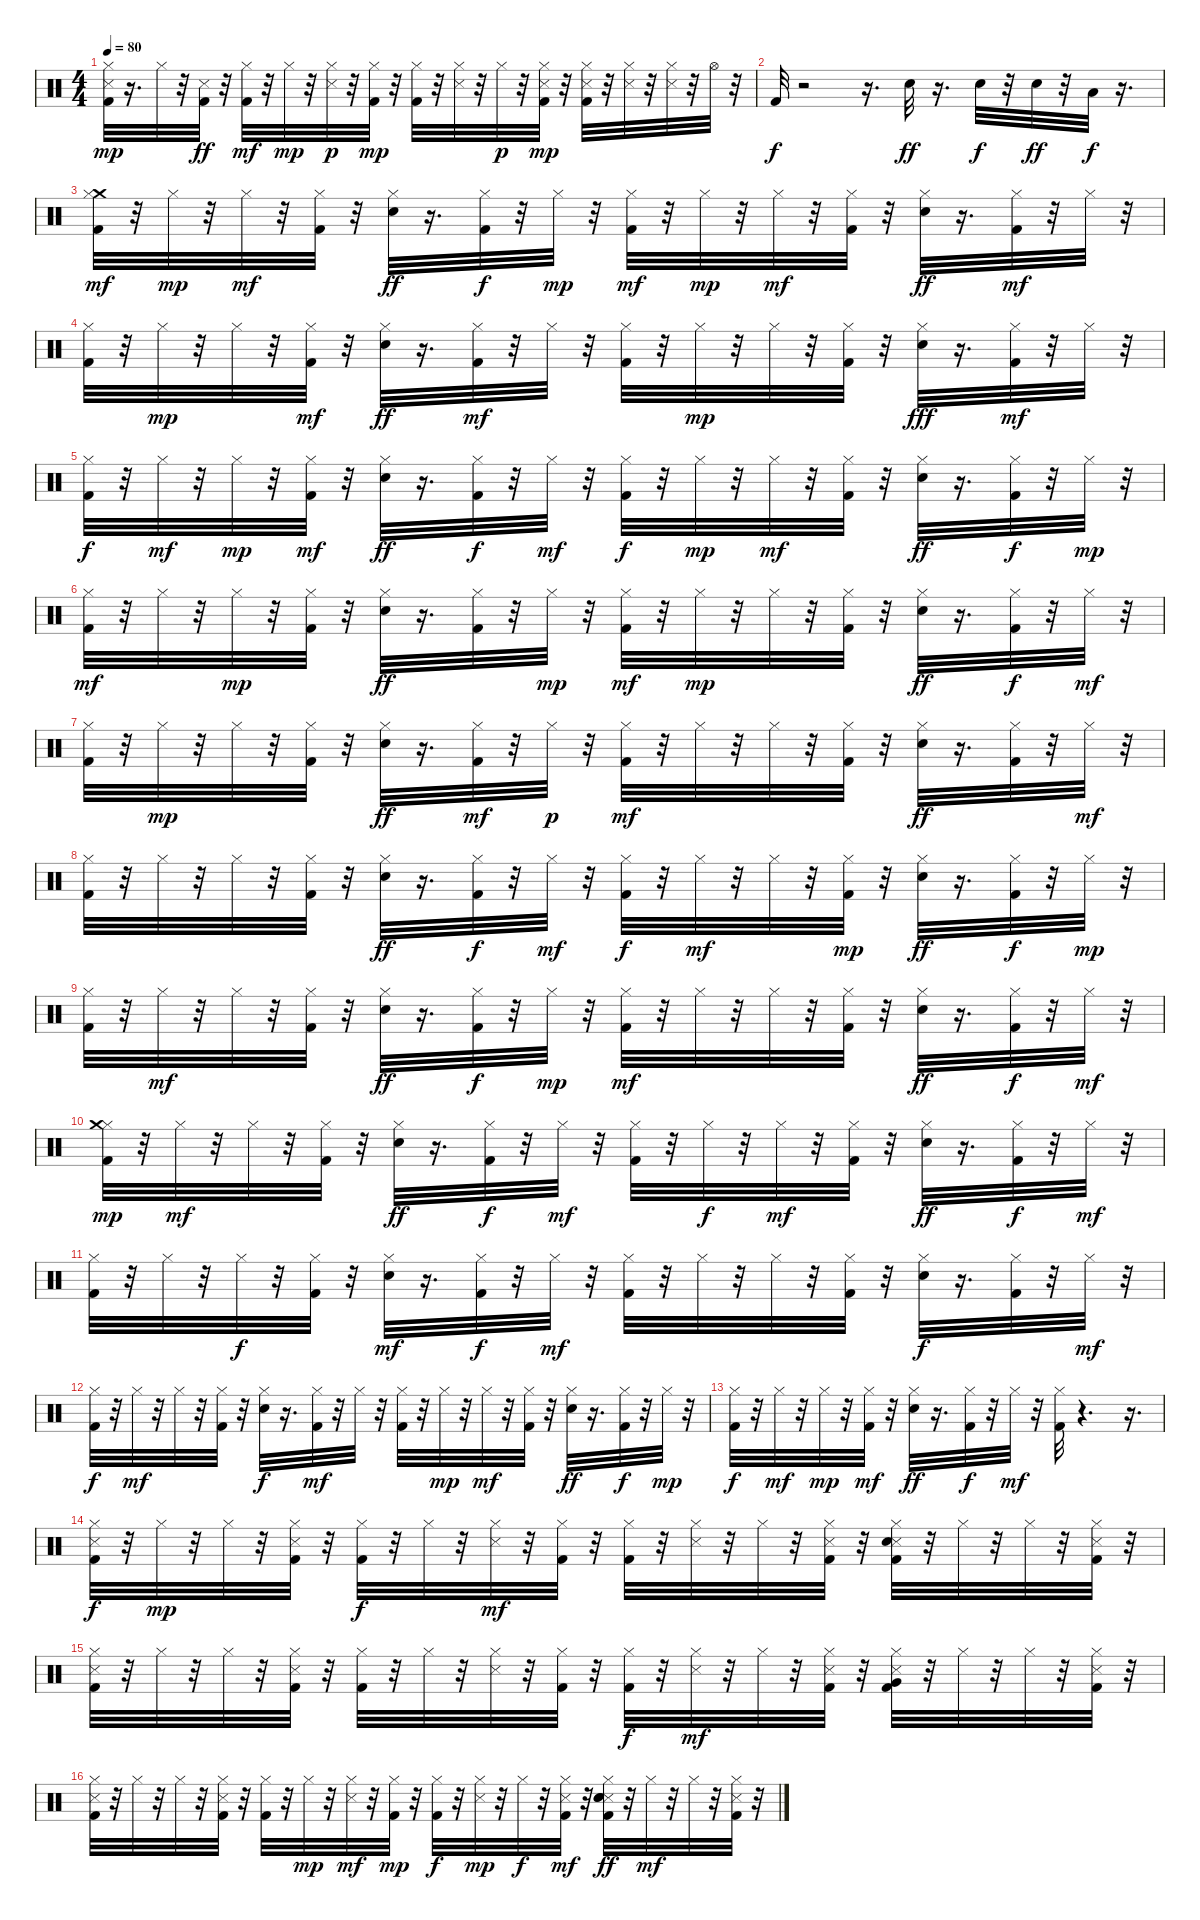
\track "" {instrument percussion}
\staff {score}
\articulation defaults
\ts (4 4)
\tempo 80
\clef neutral
\ks c
("Kick (hit) 2" "Snare (side stick) 3" "Hi-Hat (closed)").32{dy mp} r.16{d} "Hi-Hat (closed)".32 r.32 ("Kick (hit) 2" "Snare (side stick) 3").32{dy ff} r.32 ("Kick (hit) 2" "Hi-Hat (closed)").32{dy mf} r.32 "Hi-Hat (closed)".32{dy mp} r.32 ("Snare (side stick) 3" "Hi-Hat (closed)").32{dy p} r.32 ("Kick (hit) 2" "Hi-Hat (closed)").32{dy mp} r.32 ("Kick (hit) 2" "Hi-Hat (closed)").32 r.32 ("Snare (side stick) 3" "Hi-Hat (closed)").32 r.32 "Hi-Hat (closed)".32{dy p} r.32 ("Kick (hit) 2" "Snare (side stick) 3" "Hi-Hat (closed)").32{dy mp} r.32 ("Kick (hit) 2" "Snare (side stick) 3" "Hi-Hat (closed)").32 r.32 ("Snare (side stick) 3" "Hi-Hat (closed)").32 r.32 ("Snare (side stick) 3" "Hi-Hat (closed)").32 r.32 "Hi-Hat (open)".32 r.32 |
"Kick (hit) 2".32{dy f} r.2 r.16{d} "Electric Snare (hit)".32{dy ff} r.16{d} "Electric Snare (hit)".32{dy f} r.32 "Electric Snare (hit)".32{dy ff} r.32 "Low Tom (hit)".32{dy f} r.16{d} |
("Kick (hit) 2" "Crash medium (hit)" "Hi-Hat (closed)").32{dy mf} r.32 "Hi-Hat (closed)".32{dy mp} r.32 "Hi-Hat (closed)".32{dy mf} r.32 ("Kick (hit) 2" "Hi-Hat (closed)").32 r.32 ("Hi-Hat (closed)" "Snare (hit) 2").32{dy ff} r.16{d} ("Kick (hit) 2" "Hi-Hat (closed)").32{dy f} r.32 "Hi-Hat (closed)".32{dy mp} r.32 ("Kick (hit) 2" "Hi-Hat (closed)").32{dy mf} r.32 "Hi-Hat (closed)".32{dy mp} r.32 "Hi-Hat (closed)".32{dy mf} r.32 ("Kick (hit) 2" "Hi-Hat (closed)").32 r.32 ("Hi-Hat (closed)" "Snare (hit) 2").32{dy ff} r.16{d} ("Kick (hit) 2" "Hi-Hat (closed)").32{dy mf} r.32 "Hi-Hat (closed)".32 r.32 |
("Kick (hit) 2" "Hi-Hat (closed)").32 r.32 "Hi-Hat (closed)".32{dy mp} r.32 "Hi-Hat (closed)".32 r.32 ("Kick (hit) 2" "Hi-Hat (closed)").32{dy mf} r.32 ("Hi-Hat (closed)" "Snare (hit) 2").32{dy ff} r.16{d} ("Kick (hit) 2" "Hi-Hat (closed)").32{dy mf} r.32 "Hi-Hat (closed)".32 r.32 ("Kick (hit) 2" "Hi-Hat (closed)").32 r.32 "Hi-Hat (closed)".32{dy mp} r.32 "Hi-Hat (closed)".32 r.32 ("Kick (hit) 2" "Hi-Hat (closed)").32 r.32 ("Hi-Hat (closed)" "Snare (hit) 2").32{dy fff} r.16{d} ("Kick (hit) 2" "Hi-Hat (closed)").32{dy mf} r.32 "Hi-Hat (closed)".32 r.32 |
("Kick (hit) 2" "Hi-Hat (closed)").32{dy f} r.32 "Hi-Hat (closed)".32{dy mf} r.32 "Hi-Hat (closed)".32{dy mp} r.32 ("Kick (hit) 2" "Hi-Hat (closed)").32{dy mf} r.32 ("Hi-Hat (closed)" "Snare (hit) 2").32{dy ff} r.16{d} ("Kick (hit) 2" "Hi-Hat (closed)").32{dy f} r.32 "Hi-Hat (closed)".32{dy mf} r.32 ("Kick (hit) 2" "Hi-Hat (closed)").32{dy f} r.32 "Hi-Hat (closed)".32{dy mp} r.32 "Hi-Hat (closed)".32{dy mf} r.32 ("Kick (hit) 2" "Hi-Hat (closed)").32 r.32 ("Hi-Hat (closed)" "Snare (hit) 2").32{dy ff} r.16{d} ("Kick (hit) 2" "Hi-Hat (closed)").32{dy f} r.32 "Hi-Hat (closed)".32{dy mp} r.32 |
("Kick (hit) 2" "Hi-Hat (closed)").32{dy mf} r.32 "Hi-Hat (closed)".32 r.32 "Hi-Hat (closed)".32{dy mp} r.32 ("Kick (hit) 2" "Hi-Hat (closed)").32 r.32 ("Hi-Hat (closed)" "Snare (hit) 2").32{dy ff} r.16{d} ("Kick (hit) 2" "Hi-Hat (closed)").32 r.32 "Hi-Hat (closed)".32{dy mp} r.32 ("Kick (hit) 2" "Hi-Hat (closed)").32{dy mf} r.32 "Hi-Hat (closed)".32{dy mp} r.32 "Hi-Hat (closed)".32 r.32 ("Kick (hit) 2" "Hi-Hat (closed)").32 r.32 ("Hi-Hat (closed)" "Snare (hit) 2").32{dy ff} r.16{d} ("Kick (hit) 2" "Hi-Hat (closed)").32{dy f} r.32 "Hi-Hat (closed)".32{dy mf} r.32 |
("Kick (hit) 2" "Hi-Hat (closed)").32 r.32 "Hi-Hat (closed)".32{dy mp} r.32 "Hi-Hat (closed)".32 r.32 ("Kick (hit) 2" "Hi-Hat (closed)").32 r.32 ("Hi-Hat (closed)" "Snare (hit) 2").32{dy ff} r.16{d} ("Kick (hit) 2" "Hi-Hat (closed)").32{dy mf} r.32 "Hi-Hat (closed)".32{dy p} r.32 ("Kick (hit) 2" "Hi-Hat (closed)").32{dy mf} r.32 "Hi-Hat (closed)".32 r.32 "Hi-Hat (closed)".32 r.32 ("Kick (hit) 2" "Hi-Hat (closed)").32 r.32 ("Hi-Hat (closed)" "Snare (hit) 2").32{dy ff} r.16{d} ("Kick (hit) 2" "Hi-Hat (closed)").32 r.32 "Hi-Hat (closed)".32{dy mf} r.32 |
("Kick (hit) 2" "Hi-Hat (closed)").32 r.32 "Hi-Hat (closed)".32 r.32 "Hi-Hat (closed)".32 r.32 ("Kick (hit) 2" "Hi-Hat (closed)").32 r.32 ("Hi-Hat (closed)" "Snare (hit) 2").32{dy ff} r.16{d} ("Kick (hit) 2" "Hi-Hat (closed)").32{dy f} r.32 "Hi-Hat (closed)".32{dy mf} r.32 ("Kick (hit) 2" "Hi-Hat (closed)").32{dy f} r.32 "Hi-Hat (closed)".32{dy mf} r.32 "Hi-Hat (closed)".32 r.32 ("Kick (hit) 2" "Hi-Hat (closed)").32{dy mp} r.32 ("Hi-Hat (closed)" "Snare (hit) 2").32{dy ff} r.16{d} ("Kick (hit) 2" "Hi-Hat (closed)").32{dy f} r.32 "Hi-Hat (closed)".32{dy mp} r.32 |
("Kick (hit) 2" "Hi-Hat (closed)").32 r.32 "Hi-Hat (closed)".32{dy mf} r.32 "Hi-Hat (closed)".32 r.32 ("Kick (hit) 2" "Hi-Hat (closed)").32 r.32 ("Hi-Hat (closed)" "Snare (hit) 2").32{dy ff} r.16{d} ("Kick (hit) 2" "Hi-Hat (closed)").32{dy f} r.32 "Hi-Hat (closed)".32{dy mp} r.32 ("Kick (hit) 2" "Hi-Hat (closed)").32{dy mf} r.32 "Hi-Hat (closed)".32 r.32 "Hi-Hat (closed)".32 r.32 ("Kick (hit) 2" "Hi-Hat (closed)").32 r.32 ("Hi-Hat (closed)" "Snare (hit) 2").32{dy ff} r.16{d} ("Kick (hit) 2" "Hi-Hat (closed)").32{dy f} r.32 "Hi-Hat (closed)".32{dy mf} r.32 |
("Kick (hit) 2" "Hi-Hat (closed)" "Crash medium (hit)").32{dy mp} r.32 "Hi-Hat (closed)".32{dy mf} r.32 "Hi-Hat (closed)".32 r.32 ("Kick (hit) 2" "Hi-Hat (closed)").32 r.32 ("Hi-Hat (closed)" "Snare (hit) 2").32{dy ff} r.16{d} ("Kick (hit) 2" "Hi-Hat (closed)").32{dy f} r.32 "Hi-Hat (closed)".32{dy mf} r.32 ("Kick (hit) 2" "Hi-Hat (closed)").32 r.32 "Hi-Hat (closed)".32{dy f} r.32 "Hi-Hat (closed)".32{dy mf} r.32 ("Kick (hit) 2" "Hi-Hat (closed)").32 r.32 ("Hi-Hat (closed)" "Snare (hit) 2").32{dy ff} r.16{d} ("Kick (hit) 2" "Hi-Hat (closed)").32{dy f} r.32 "Hi-Hat (closed)".32{dy mf} r.32 |
("Kick (hit) 2" "Hi-Hat (closed)").32 r.32 "Hi-Hat (closed)".32 r.32 "Hi-Hat (closed)".32{dy f} r.32 ("Kick (hit) 2" "Hi-Hat (closed)").32 r.32 ("Hi-Hat (closed)" "Snare (hit) 2").32{dy mf} r.16{d} ("Kick (hit) 2" "Hi-Hat (closed)").32{dy f} r.32 "Hi-Hat (closed)".32{dy mf} r.32 ("Kick (hit) 2" "Hi-Hat (closed)").32 r.32 "Hi-Hat (closed)".32 r.32 "Hi-Hat (closed)".32 r.32 ("Kick (hit) 2" "Hi-Hat (closed)").32 r.32 ("Hi-Hat (closed)" "Snare (hit) 2").32{dy f} r.16{d} ("Kick (hit) 2" "Hi-Hat (closed)").32 r.32 "Hi-Hat (closed)".32{dy mf} r.32 |
("Kick (hit) 2" "Hi-Hat (closed)").32{dy f} r.32 "Hi-Hat (closed)".32{dy mf} r.32 "Hi-Hat (closed)".32 r.32 ("Kick (hit) 2" "Hi-Hat (closed)").32 r.32 ("Hi-Hat (closed)" "Snare (hit) 2").32{dy f} r.16{d} ("Kick (hit) 2" "Hi-Hat (closed)").32{dy mf} r.32 "Hi-Hat (closed)".32 r.32 ("Kick (hit) 2" "Hi-Hat (closed)").32 r.32 "Hi-Hat (closed)".32{dy mp} r.32 "Hi-Hat (closed)".32{dy mf} r.32 ("Kick (hit) 2" "Hi-Hat (closed)").32 r.32 ("Hi-Hat (closed)" "Snare (hit) 2").32{dy ff} r.16{d} ("Kick (hit) 2" "Hi-Hat (closed)").32{dy f} r.32 "Hi-Hat (closed)".32{dy mp} r.32 |
("Kick (hit) 2" "Hi-Hat (closed)").32{dy f} r.32 "Hi-Hat (closed)".32{dy mf} r.32 "Hi-Hat (closed)".32{dy mp} r.32 ("Kick (hit) 2" "Hi-Hat (closed)").32{dy mf} r.32 ("Hi-Hat (closed)" "Snare (hit) 2").32{dy ff} r.16{d} ("Kick (hit) 2" "Hi-Hat (closed)").32{dy f} r.32 "Hi-Hat (closed)".32{dy mf} r.32 ("Kick (hit) 2" "Hi-Hat (closed)").32 r.4{d} r.16{d} |
("Kick (hit) 2" "Snare (side stick) 3" "Hi-Hat (closed)").32{dy f} r.32 "Hi-Hat (closed)".32{dy mp} r.32 "Hi-Hat (closed)".32 r.32 ("Kick (hit) 2" "Snare (side stick) 3" "Hi-Hat (closed)").32 r.32 ("Kick (hit) 2" "Hi-Hat (closed)").32{dy f} r.32 "Hi-Hat (closed)".32 r.32 ("Snare (side stick) 3" "Hi-Hat (closed)").32{dy mf} r.32 ("Kick (hit) 2" "Hi-Hat (closed)").32 r.32 ("Kick (hit) 2" "Hi-Hat (closed)").32 r.32 ("Snare (side stick) 3" "Hi-Hat (closed)").32 r.32 "Hi-Hat (closed)".32 r.32 ("Kick (hit) 2" "Snare (side stick) 3" "Hi-Hat (closed)").32 r.32 ("Kick (hit) 2" "Snare (side stick) 3" "Snare (hit) 2" "Hi-Hat (closed)").32 r.32 "Hi-Hat (closed)".32 r.32 "Hi-Hat (closed)".32 r.32 ("Kick (hit) 2" "Snare (side stick) 3" "Hi-Hat (closed)").32 r.32 |
("Kick (hit) 2" "Snare (side stick) 3" "Hi-Hat (closed)").32 r.32 "Hi-Hat (closed)".32 r.32 "Hi-Hat (closed)".32 r.32 ("Kick (hit) 2" "Snare (side stick) 3" "Hi-Hat (closed)").32 r.32 ("Kick (hit) 2" "Hi-Hat (closed)").32 r.32 "Hi-Hat (closed)".32 r.32 ("Snare (side stick) 3" "Hi-Hat (closed)").32 r.32 ("Kick (hit) 2" "Hi-Hat (closed)").32 r.32 ("Kick (hit) 2" "Hi-Hat (closed)").32{dy f} r.32 ("Snare (side stick) 3" "Hi-Hat (closed)").32{dy mf} r.32 "Hi-Hat (closed)".32 r.32 ("Kick (hit) 2" "Snare (side stick) 3" "Hi-Hat (closed)").32 r.32 ("Kick (hit) 2" "Snare (side stick) 3" "Very Low Tom (hit)" "Hi-Hat (closed)").32 r.32 "Hi-Hat (closed)".32 r.32 "Hi-Hat (closed)".32 r.32 ("Kick (hit) 2" "Snare (side stick) 3" "Hi-Hat (closed)").32 r.32 |
("Kick (hit) 2" "Snare (side stick) 3" "Hi-Hat (closed)").32 r.32 "Hi-Hat (closed)".32 r.32 "Hi-Hat (closed)".32 r.32 ("Kick (hit) 2" "Snare (side stick) 3" "Hi-Hat (closed)").32 r.32 ("Kick (hit) 2" "Hi-Hat (closed)").32 r.32 "Hi-Hat (closed)".32{dy mp} r.32 ("Snare (side stick) 3" "Hi-Hat (closed)").32{dy mf} r.32 ("Kick (hit) 2" "Hi-Hat (closed)").32{dy mp} r.32 ("Kick (hit) 2" "Hi-Hat (closed)").32{dy f} r.32 ("Snare (side stick) 3" "Hi-Hat (closed)").32{dy mp} r.32 "Hi-Hat (closed)".32{dy f} r.32 ("Kick (hit) 2" "Snare (side stick) 3" "Hi-Hat (closed)").32{dy mf} r.32 ("Kick (hit) 2" "Snare (side stick) 3" "Snare (hit) 2" "Electric Snare (hit)" "Hi-Hat (closed)").32{dy ff} r.32 "Hi-Hat (closed)".32{dy mf} r.32 "Hi-Hat (closed)".32 r.32 ("Kick (hit) 2" "Snare (side stick) 3" "Hi-Hat (closed)").32 r.32
